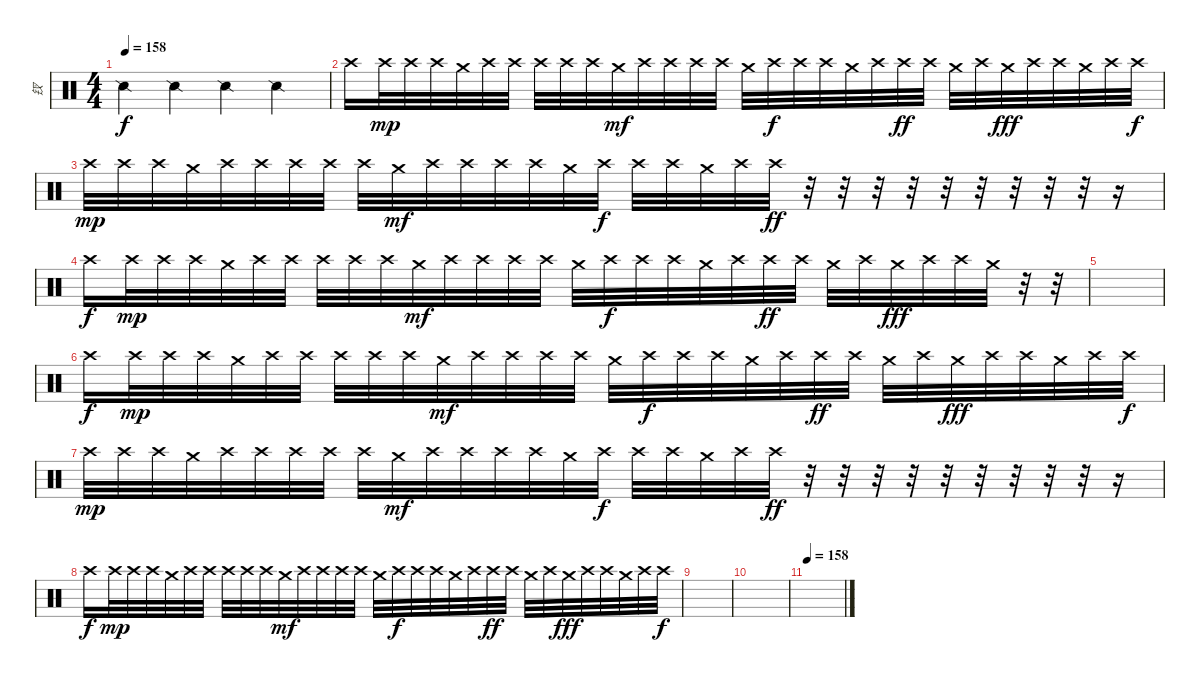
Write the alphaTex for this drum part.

\track ("钗" "钗") {instrument percussion}
\staff {score}
\articulation defaults
\ts (4 4)
\tempo 158
\tempo 155
\tempo 158
\clef neutral
\ks c "Snare (side stick) 2".4{dy f} "Snare (side stick) 2".4 "Snare (side stick) 2".4 "Snare (side stick) 2".4
|
"Crash high (hit)".16 "Crash high (hit)".32{dy mp} "Crash high (hit)".32 "Crash high (hit)".32 "Crash medium (hit)".32 "Crash high (hit)".32 "Crash high (hit)".32 "Crash high (hit)".32 "Crash high (hit)".32 "Crash high (hit)".32 "Crash medium (hit)".32{dy mf} "Crash high (hit)".32 "Crash high (hit)".32 "Crash high (hit)".32 "Crash high (hit)".32 "Crash medium (hit)".32 "Crash high (hit)".32{dy f} "Crash high (hit)".32 "Crash high (hit)".32 "Crash medium (hit)".32 "Crash high (hit)".32 "Crash high (hit)".32{dy ff} "Crash high (hit)".32 "Crash medium (hit)".32 "Crash high (hit)".32 "Crash medium (hit)".32{dy fff} "Crash high (hit)".32 "Crash high (hit)".32 "Crash medium (hit)".32 "Crash high (hit)".32 "Crash high (hit)".32{dy f} |
"Crash high (hit)".32{dy mp} "Crash high (hit)".32 "Crash high (hit)".32 "Crash medium (hit)".32 "Crash high (hit)".32 "Crash high (hit)".32 "Crash high (hit)".32 "Crash high (hit)".32 "Crash high (hit)".32 "Crash medium (hit)".32{dy mf} "Crash high (hit)".32 "Crash high (hit)".32 "Crash high (hit)".32 "Crash high (hit)".32 "Crash medium (hit)".32 "Crash high (hit)".32{dy f} "Crash high (hit)".32 "Crash high (hit)".32 "Crash medium (hit)".32 "Crash high (hit)".32 "Crash high (hit)".32{dy ff} r.32 r.32 r.32 r.32 r.32 r.32 r.32 r.32 r.32 r.16 |
"Crash high (hit)".16{dy f} "Crash high (hit)".32{dy mp} "Crash high (hit)".32 "Crash high (hit)".32 "Crash medium (hit)".32 "Crash high (hit)".32 "Crash high (hit)".32 "Crash high (hit)".32 "Crash high (hit)".32 "Crash high (hit)".32 "Crash medium (hit)".32{dy mf} "Crash high (hit)".32 "Crash high (hit)".32 "Crash high (hit)".32 "Crash high (hit)".32 "Crash medium (hit)".32 "Crash high (hit)".32{dy f} "Crash high (hit)".32 "Crash high (hit)".32 "Crash medium (hit)".32 "Crash high (hit)".32 "Crash high (hit)".32{dy ff} "Crash high (hit)".32 "Crash medium (hit)".32 "Crash high (hit)".32 "Crash medium (hit)".32{dy fff} "Crash high (hit)".32 "Crash high (hit)".32 "Crash medium (hit)".32 r.32 r.32 |
|
"Crash high (hit)".16{dy f} "Crash high (hit)".32{dy mp} "Crash high (hit)".32 "Crash high (hit)".32 "Crash medium (hit)".32 "Crash high (hit)".32 "Crash high (hit)".32 "Crash high (hit)".32 "Crash high (hit)".32 "Crash high (hit)".32 "Crash medium (hit)".32{dy mf} "Crash high (hit)".32 "Crash high (hit)".32 "Crash high (hit)".32 "Crash high (hit)".32 "Crash medium (hit)".32 "Crash high (hit)".32{dy f} "Crash high (hit)".32 "Crash high (hit)".32 "Crash medium (hit)".32 "Crash high (hit)".32 "Crash high (hit)".32{dy ff} "Crash high (hit)".32 "Crash medium (hit)".32 "Crash high (hit)".32 "Crash medium (hit)".32{dy fff} "Crash high (hit)".32 "Crash high (hit)".32 "Crash medium (hit)".32 "Crash high (hit)".32 "Crash high (hit)".32{dy f} |
"Crash high (hit)".32{dy mp} "Crash high (hit)".32 "Crash high (hit)".32 "Crash medium (hit)".32 "Crash high (hit)".32 "Crash high (hit)".32 "Crash high (hit)".32 "Crash high (hit)".32 "Crash high (hit)".32 "Crash medium (hit)".32{dy mf} "Crash high (hit)".32 "Crash high (hit)".32 "Crash high (hit)".32 "Crash high (hit)".32 "Crash medium (hit)".32 "Crash high (hit)".32{dy f} "Crash high (hit)".32 "Crash high (hit)".32 "Crash medium (hit)".32 "Crash high (hit)".32 "Crash high (hit)".32{dy ff} r.32 r.32 r.32 r.32 r.32 r.32 r.32 r.32 r.32 r.16 |
"Crash high (hit)".16{dy f} "Crash high (hit)".32{dy mp} "Crash high (hit)".32 "Crash high (hit)".32 "Crash medium (hit)".32 "Crash high (hit)".32 "Crash high (hit)".32 "Crash high (hit)".32 "Crash high (hit)".32 "Crash high (hit)".32 "Crash medium (hit)".32{dy mf} "Crash high (hit)".32 "Crash high (hit)".32 "Crash high (hit)".32 "Crash high (hit)".32 "Crash medium (hit)".32 "Crash high (hit)".32{dy f} "Crash high (hit)".32 "Crash high (hit)".32 "Crash medium (hit)".32 "Crash high (hit)".32 "Crash high (hit)".32{dy ff} "Crash high (hit)".32 "Crash medium (hit)".32 "Crash high (hit)".32 "Crash medium (hit)".32{dy fff} "Crash high (hit)".32 "Crash high (hit)".32 "Crash medium (hit)".32 "Crash high (hit)".32 "Crash high (hit)".32{dy f} |
|
|
\tempo 158
